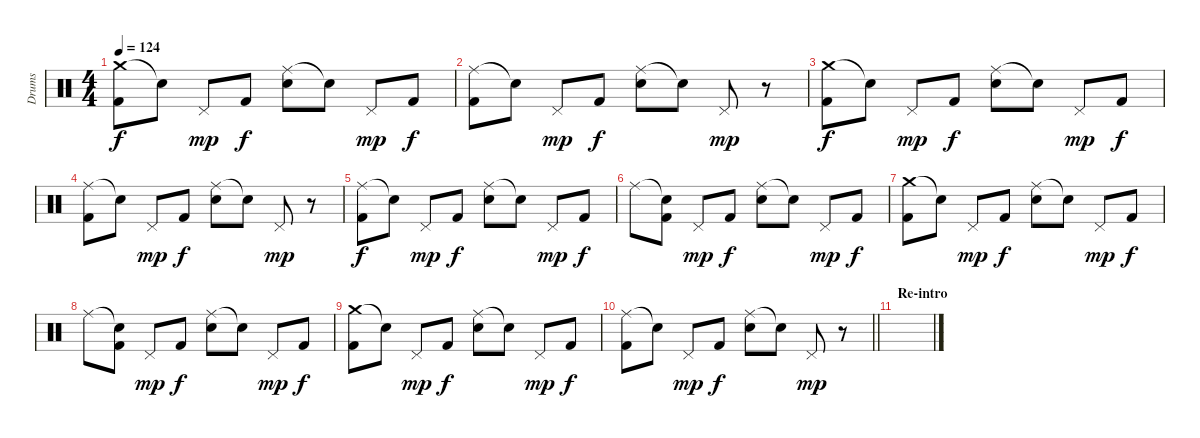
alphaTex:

\track ("Drums" "Drums") {instrument percussion}
\staff {score}
\articulation defaults
\ts (4 4)
\tempo 124
\clef neutral
\ks c
("Crash medium (hit)" "Kick (hit) 2").8{dy f} "Snare (hit)"{t}.8 "Pedal Hi-Hat (hit)".8{dy mp} "Kick (hit) 2".8{dy f} ("Ride (middle)" "Electric Snare (hit)").8 "Snare (hit)"{t}.8 "Pedal Hi-Hat (hit)".8{dy mp} "Kick (hit) 2".8{dy f} |
("Ride (middle)" "Kick (hit) 2").8 "Snare (hit)"{t}.8 "Pedal Hi-Hat (hit)".8{dy mp} "Kick (hit) 2".8{dy f} ("Ride (middle)" "Electric Snare (hit)").8 "Snare (hit)"{t}.8 "Pedal Hi-Hat (hit)".8{dy mp} r.8 |
("Crash medium (hit)" "Kick (hit) 2").8{dy f} "Snare (hit)"{t}.8 "Pedal Hi-Hat (hit)".8{dy mp} "Kick (hit) 2".8{dy f} ("Ride (middle)" "Electric Snare (hit)").8 "Snare (hit)"{t}.8 "Pedal Hi-Hat (hit)".8{dy mp} "Kick (hit) 2".8{dy f} |
("Ride (middle)" "Kick (hit) 2").8 "Snare (hit)"{t}.8 "Pedal Hi-Hat (hit)".8{dy mp} "Kick (hit) 2".8{dy f} ("Ride (middle)" "Electric Snare (hit)").8 "Snare (hit)"{t}.8 "Pedal Hi-Hat (hit)".8{dy mp} r.8 |
("Ride (middle)" "Kick (hit) 2").8{dy f} "Snare (hit)"{t}.8 "Pedal Hi-Hat (hit)".8{dy mp} "Kick (hit) 2".8{dy f} ("Ride (middle)" "Electric Snare (hit)").8 "Snare (hit)"{t}.8 "Pedal Hi-Hat (hit)".8{dy mp} "Kick (hit) 2".8{dy f} |
"Ride (middle)".8 ("Snare (hit)"{t} "Kick (hit) 2").8 "Pedal Hi-Hat (hit)".8{dy mp} "Kick (hit) 2".8{dy f} ("Ride (middle)" "Electric Snare (hit)").8 "Snare (hit)"{t}.8 "Pedal Hi-Hat (hit)".8{dy mp} "Kick (hit) 2".8{dy f} |
("Crash medium (hit)" "Kick (hit) 2").8 "Snare (hit)"{t}.8 "Pedal Hi-Hat (hit)".8{dy mp} "Kick (hit) 2".8{dy f} ("Ride (middle)" "Electric Snare (hit)").8 "Snare (hit)"{t}.8 "Pedal Hi-Hat (hit)".8{dy mp} "Kick (hit) 2".8{dy f} |
"Ride (middle)".8 ("Snare (hit)"{t} "Kick (hit) 2").8 "Pedal Hi-Hat (hit)".8{dy mp} "Kick (hit) 2".8{dy f} ("Ride (middle)" "Electric Snare (hit)").8 "Snare (hit)"{t}.8 "Pedal Hi-Hat (hit)".8{dy mp} "Kick (hit) 2".8{dy f} |
("Crash medium (hit)" "Kick (hit) 2").8 "Snare (hit)"{t}.8 "Pedal Hi-Hat (hit)".8{dy mp} "Kick (hit) 2".8{dy f} ("Ride (middle)" "Electric Snare (hit)").8 "Snare (hit)"{t}.8 "Pedal Hi-Hat (hit)".8{dy mp} "Kick (hit) 2".8{dy f} |
\barLineRight lightlight
("Ride (middle)" "Kick (hit) 2").8 "Snare (hit)"{t}.8 "Pedal Hi-Hat (hit)".8{dy mp} "Kick (hit) 2".8{dy f} ("Ride (middle)" "Electric Snare (hit)").8 "Snare (hit)"{t}.8 "Pedal Hi-Hat (hit)".8{dy mp} r.8 |
\section ("" "Re-intro")
